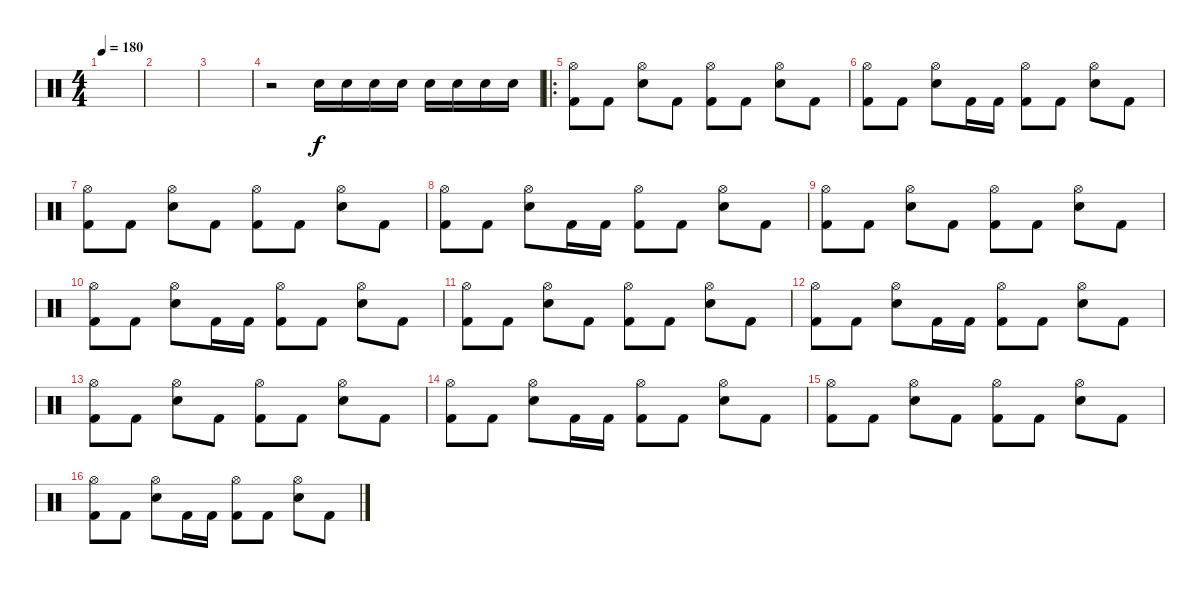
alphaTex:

\track "" {instrument percussion}
\staff {score}
\articulation defaults
\ts (4 4)
\tempo 180
\clef neutral
\ks c
|
|
|
r.2 "Snare (hit) 2".16 "Snare (hit) 2".16 "Snare (hit) 2".16 "Snare (hit) 2".16 "Snare (hit) 2".16 "Snare (hit) 2".16 "Snare (hit) 2".16 "Snare (hit) 2".16 |
\ro
("Hi-Hat (open)" "Kick (hit) 2").8 "Kick (hit) 2".8 ("Hi-Hat (open)" "Snare (hit) 2").8 "Kick (hit) 2".8 ("Hi-Hat (open)" "Kick (hit) 2").8 "Kick (hit) 2".8 ("Hi-Hat (open)" "Snare (hit) 2").8 "Kick (hit) 2".8 |
("Hi-Hat (open)" "Kick (hit) 2").8 "Kick (hit) 2".8 ("Hi-Hat (open)" "Snare (hit) 2").8 "Kick (hit) 2".16 "Kick (hit) 2".16 ("Hi-Hat (open)" "Kick (hit) 2").8 "Kick (hit) 2".8 ("Hi-Hat (open)" "Snare (hit) 2").8 "Kick (hit) 2".8 |
("Hi-Hat (open)" "Kick (hit) 2").8 "Kick (hit) 2".8 ("Hi-Hat (open)" "Snare (hit) 2").8 "Kick (hit) 2".8 ("Hi-Hat (open)" "Kick (hit) 2").8 "Kick (hit) 2".8 ("Hi-Hat (open)" "Snare (hit) 2").8 "Kick (hit) 2".8 |
("Hi-Hat (open)" "Kick (hit) 2").8 "Kick (hit) 2".8 ("Hi-Hat (open)" "Snare (hit) 2").8 "Kick (hit) 2".16 "Kick (hit) 2".16 ("Hi-Hat (open)" "Kick (hit) 2").8 "Kick (hit) 2".8 ("Hi-Hat (open)" "Snare (hit) 2").8 "Kick (hit) 2".8 |
\section ("" "")
("Hi-Hat (open)" "Kick (hit) 2").8{txt ""} "Kick (hit) 2".8 ("Hi-Hat (open)" "Snare (hit) 2").8 "Kick (hit) 2".8 ("Hi-Hat (open)" "Kick (hit) 2").8 "Kick (hit) 2".8 ("Hi-Hat (open)" "Snare (hit) 2").8 "Kick (hit) 2".8 |
("Hi-Hat (open)" "Kick (hit) 2").8 "Kick (hit) 2".8 ("Hi-Hat (open)" "Snare (hit) 2").8 "Kick (hit) 2".16 "Kick (hit) 2".16 ("Hi-Hat (open)" "Kick (hit) 2").8 "Kick (hit) 2".8 ("Hi-Hat (open)" "Snare (hit) 2").8 "Kick (hit) 2".8 |
("Hi-Hat (open)" "Kick (hit) 2").8 "Kick (hit) 2".8 ("Hi-Hat (open)" "Snare (hit) 2").8 "Kick (hit) 2".8 ("Hi-Hat (open)" "Kick (hit) 2").8 "Kick (hit) 2".8 ("Hi-Hat (open)" "Snare (hit) 2").8 "Kick (hit) 2".8 |
("Hi-Hat (open)" "Kick (hit) 2").8 "Kick (hit) 2".8 ("Hi-Hat (open)" "Snare (hit) 2").8 "Kick (hit) 2".16 "Kick (hit) 2".16 ("Hi-Hat (open)" "Kick (hit) 2").8 "Kick (hit) 2".8 ("Hi-Hat (open)" "Snare (hit) 2").8 "Kick (hit) 2".8 |
("Hi-Hat (open)" "Kick (hit) 2").8 "Kick (hit) 2".8 ("Hi-Hat (open)" "Snare (hit) 2").8 "Kick (hit) 2".8 ("Hi-Hat (open)" "Kick (hit) 2").8 "Kick (hit) 2".8 ("Hi-Hat (open)" "Snare (hit) 2").8 "Kick (hit) 2".8 |
("Hi-Hat (open)" "Kick (hit) 2").8 "Kick (hit) 2".8 ("Hi-Hat (open)" "Snare (hit) 2").8 "Kick (hit) 2".16 "Kick (hit) 2".16 ("Hi-Hat (open)" "Kick (hit) 2").8 "Kick (hit) 2".8 ("Hi-Hat (open)" "Snare (hit) 2").8 "Kick (hit) 2".8 |
("Hi-Hat (open)" "Kick (hit) 2").8 "Kick (hit) 2".8 ("Hi-Hat (open)" "Snare (hit) 2").8 "Kick (hit) 2".8 ("Hi-Hat (open)" "Kick (hit) 2").8 "Kick (hit) 2".8 ("Hi-Hat (open)" "Snare (hit) 2").8 "Kick (hit) 2".8 |
("Hi-Hat (open)" "Kick (hit) 2").8 "Kick (hit) 2".8 ("Hi-Hat (open)" "Snare (hit) 2").8 "Kick (hit) 2".16 "Kick (hit) 2".16 ("Hi-Hat (open)" "Kick (hit) 2").8 "Kick (hit) 2".8 ("Hi-Hat (open)" "Snare (hit) 2").8 "Kick (hit) 2".8
